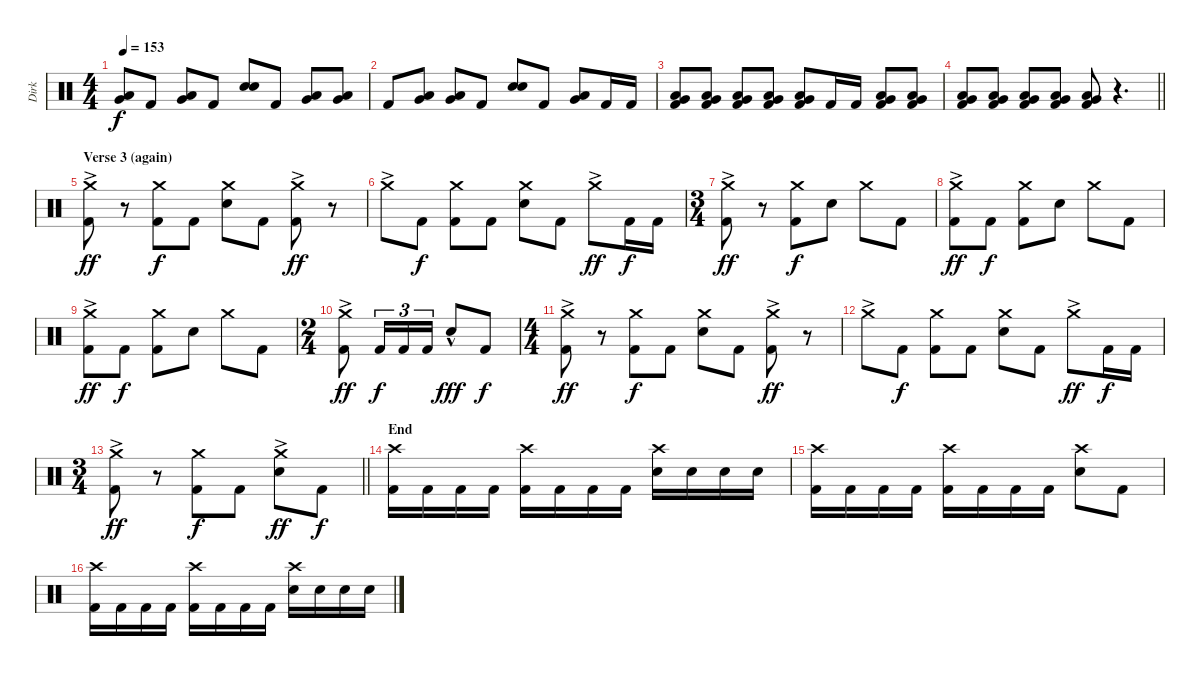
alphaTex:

\track ("Dirk" "Dirk") {instrument percussion}
\staff {score}
\articulation defaults
\ts (4 4)
\tempo 153
\clef neutral
\ks c
("Low Tom (hit)" "Very Low Tom (hit)").8{dy f} "Kick (hit) 2".8 ("Very Low Tom (hit)" "Low Floor Tom (hit)").8 "Kick (hit) 2".8 ("Electric Snare (hit)" "Electric Snare (hit)").8 "Kick (hit) 2".8 ("Very Low Tom (hit)" "Low Floor Tom (hit)").8 ("Very Low Tom (hit)" "Low Floor Tom (hit)").8 |
"Kick (hit) 2".8 ("Very Low Tom (hit)" "Low Floor Tom (hit)").8 ("Very Low Tom (hit)" "Low Floor Tom (hit)").8 "Kick (hit) 2".8 ("Electric Snare (hit)" "Electric Snare (hit)").8 "Kick (hit) 2".8 ("Very Low Tom (hit)" "Low Floor Tom (hit)").8 "Kick (hit) 2".16 "Kick (hit) 2".16 |
("Very Low Tom (hit)" "Low Floor Tom (hit)" "Kick (hit) 2").8 ("Very Low Tom (hit)" "Low Floor Tom (hit)" "Kick (hit) 2").8 ("Very Low Tom (hit)" "Low Floor Tom (hit)" "Kick (hit) 2").8 ("Very Low Tom (hit)" "Low Floor Tom (hit)" "Kick (hit) 2").8 ("Very Low Tom (hit)" "Low Floor Tom (hit)" "Kick (hit) 2").8 "Kick (hit) 2".16 "Kick (hit) 2".16 ("Very Low Tom (hit)" "Low Floor Tom (hit)" "Kick (hit) 2").8 ("Very Low Tom (hit)" "Low Floor Tom (hit)" "Kick (hit) 2").8 |
\barLineRight lightlight
("Very Low Tom (hit)" "Low Floor Tom (hit)" "Kick (hit) 2").8 ("Very Low Tom (hit)" "Low Floor Tom (hit)" "Kick (hit) 2").8 ("Very Low Tom (hit)" "Low Floor Tom (hit)" "Kick (hit) 2").8 ("Very Low Tom (hit)" "Low Floor Tom (hit)" "Kick (hit) 2").8 ("Very Low Tom (hit)" "Low Floor Tom (hit)" "Kick (hit) 2").8 r.4{d} |
\section ("" "Verse 3 (again)")
("Crash medium (hit)"{ac} "Kick (hit) 2").8{dy ff} r.8 ("Crash medium (hit)" "Kick (hit) 2").8{dy f} "Kick (hit) 2".8 ("Crash medium (hit)" "Electric Snare (hit)").8 "Kick (hit) 2".8 ("Crash medium (hit)"{ac} "Kick (hit) 2").8{dy ff} r.8 |
"Crash medium (hit)"{ac}.8 "Kick (hit) 2".8{dy f} ("Crash medium (hit)" "Kick (hit) 2").8 "Kick (hit) 2".8 ("Crash medium (hit)" "Electric Snare (hit)").8 "Kick (hit) 2".8 "Crash medium (hit)"{ac}.8{dy ff} "Kick (hit) 2".16{dy f} "Kick (hit) 2".16 |
\ts (3 4)
("Crash medium (hit)"{ac} "Kick (hit) 2").8{dy ff} r.8 ("Crash medium (hit)" "Kick (hit) 2").8{dy f} "Electric Snare (hit)".8 "Crash medium (hit)".8 "Kick (hit) 2".8 |
("Crash medium (hit)"{ac} "Kick (hit) 2").8{dy ff} "Kick (hit) 2".8{dy f} ("Crash medium (hit)" "Kick (hit) 2").8 "Electric Snare (hit)".8 "Crash medium (hit)".8 "Kick (hit) 2".8 |
("Crash medium (hit)"{ac} "Kick (hit) 2").8{dy ff} "Kick (hit) 2".8{dy f} ("Crash medium (hit)" "Kick (hit) 2").8 "Electric Snare (hit)".8 "Crash medium (hit)".8 "Kick (hit) 2".8 |
\ts (2 4)
("Crash medium (hit)"{ac} "Kick (hit) 2").8{dy ff} "Kick (hit) 2".16{tu (3 2) dy f} "Kick (hit) 2".16{tu (3 2)} "Kick (hit) 2".16{tu (3 2)} "Electric Snare (hit)"{hac}.8{dy fff} "Kick (hit) 2".8{dy f} |
\ts (4 4)
("Crash medium (hit)"{ac} "Kick (hit) 2").8{dy ff} r.8 ("Crash medium (hit)" "Kick (hit) 2").8{dy f} "Kick (hit) 2".8 ("Crash medium (hit)" "Electric Snare (hit)").8 "Kick (hit) 2".8 ("Crash medium (hit)"{ac} "Kick (hit) 2").8{dy ff} r.8 |
"Crash medium (hit)"{ac}.8 "Kick (hit) 2".8{dy f} ("Crash medium (hit)" "Kick (hit) 2").8 "Kick (hit) 2".8 ("Crash medium (hit)" "Electric Snare (hit)").8 "Kick (hit) 2".8 "Crash medium (hit)"{ac}.8{dy ff} "Kick (hit) 2".16{dy f} "Kick (hit) 2".16 |
\ts (3 4)
\barLineRight lightlight
("Crash medium (hit)"{ac} "Kick (hit) 2").8{dy ff} r.8 ("Crash medium (hit)" "Kick (hit) 2").8{dy f} "Kick (hit) 2".8 ("Crash medium (hit)" "Electric Snare (hit)"{ac}).8{dy ff} "Kick (hit) 2".8{dy f} |
\section ("" "End")
("Crash high (hit)" "Kick (hit) 2").16 "Kick (hit) 2".16 "Kick (hit) 2".16 "Kick (hit) 2".16 ("Crash high (hit)" "Kick (hit) 2").16 "Kick (hit) 2".16 "Kick (hit) 2".16 "Kick (hit) 2".16 ("Crash high (hit)" "Electric Snare (hit)").16 "Electric Snare (hit)".16 "Electric Snare (hit)".16 "Electric Snare (hit)".16 |
("Crash high (hit)" "Kick (hit) 2").16 "Kick (hit) 2".16 "Kick (hit) 2".16 "Kick (hit) 2".16 ("Crash high (hit)" "Kick (hit) 2").16 "Kick (hit) 2".16 "Kick (hit) 2".16 "Kick (hit) 2".16 ("Crash high (hit)" "Electric Snare (hit)").8 "Kick (hit) 2".8 |
("Crash high (hit)" "Kick (hit) 2").16 "Kick (hit) 2".16 "Kick (hit) 2".16 "Kick (hit) 2".16 ("Crash high (hit)" "Kick (hit) 2").16 "Kick (hit) 2".16 "Kick (hit) 2".16 "Kick (hit) 2".16 ("Crash high (hit)" "Electric Snare (hit)").16 "Electric Snare (hit)".16 "Electric Snare (hit)".16 "Electric Snare (hit)".16
